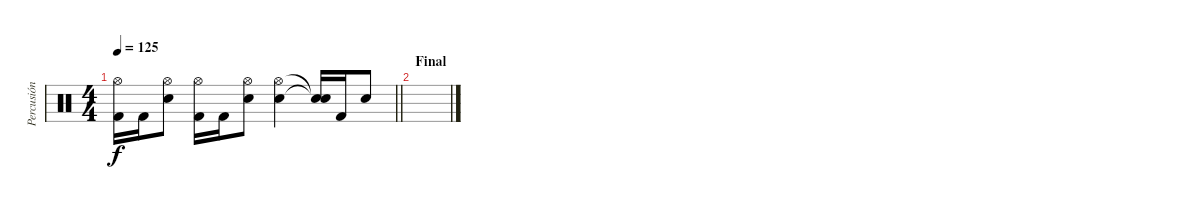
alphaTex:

\track ("Percusión" "Percusión") {instrument percussion}
\staff {score}
\articulation defaults
\ts (4 4)
\tempo 125
\clef neutral
\barLineRight lightlight
\ks c
("Hi-Hat (open)" "Kick (hit) 2").16{dy f} "Kick (hit) 2".16 ("Hi-Hat (open)" "Snare (hit) 2").8 ("Hi-Hat (open)" "Kick (hit) 2").16 "Kick (hit) 2".16 ("Hi-Hat (open)" "Snare (hit) 2").8 ("Hi-Hat (open)" "Snare (hit) 2").4 ("Snare (hit)"{t} "Snare (hit)"{t}).16 "Kick (hit) 2".16 "Snare (hit) 2".8 |
\section ("" "Final")
